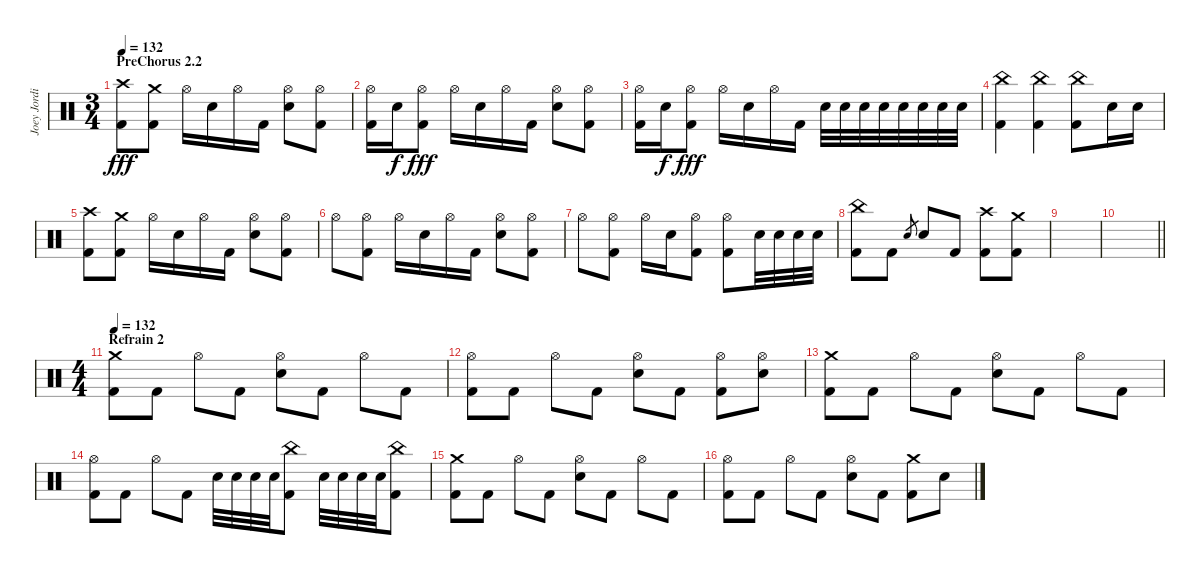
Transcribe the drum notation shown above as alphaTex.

\track ("Joey Jordison" "Joey Jordi") {instrument percussion}
\staff {score}
\articulation defaults
\ts (3 4)
\section ("" "PreChorus 2.2")
\tempo 132
\clef neutral
\ks c
("Crash high (hit)" "Kick (hit) 2").8{dy fff} ("Crash medium (hit)" "Kick (hit) 2").8 "Hi-Hat (open)".16 "Electric Snare (hit)".16 "Hi-Hat (open)".16 "Kick (hit) 2".16 ("Hi-Hat (open)" "Electric Snare (hit)").8 ("Hi-Hat (open)" "Kick (hit) 2").8 |
("Hi-Hat (open)" "Kick (hit) 2").16 "Electric Snare (hit)".16{dy f} ("Hi-Hat (open)" "Kick (hit) 2").8{dy fff} "Hi-Hat (open)".16 "Electric Snare (hit)".16 "Hi-Hat (open)".16 "Kick (hit) 2".16 ("Hi-Hat (open)" "Electric Snare (hit)").8 ("Hi-Hat (open)" "Kick (hit) 2").8 |
("Hi-Hat (open)" "Kick (hit) 2").16 "Electric Snare (hit)".16{dy f} ("Hi-Hat (open)" "Kick (hit) 2").8{dy fff} "Hi-Hat (open)".16 "Electric Snare (hit)".16 "Hi-Hat (open)".16 "Kick (hit) 2".16 "Electric Snare (hit)".32 "Electric Snare (hit)".32 "Electric Snare (hit)".32 "Electric Snare (hit)".32 "Electric Snare (hit)".32 "Electric Snare (hit)".32 "Electric Snare (hit)".32 "Electric Snare (hit)".32 |
("China (hit)" "Kick (hit) 2").4 ("China (hit)" "Kick (hit) 2").4 ("China (hit)" "Kick (hit) 2").8 "Electric Snare (hit)".16 "Electric Snare (hit)".16 |
("Crash high (hit)" "Kick (hit) 2").8 ("Crash medium (hit)" "Kick (hit) 2").8 "Hi-Hat (open)".16 "Electric Snare (hit)".16 "Hi-Hat (open)".16 "Kick (hit) 2".16 ("Hi-Hat (open)" "Electric Snare (hit)").8 ("Hi-Hat (open)" "Kick (hit) 2").8 |
"Hi-Hat (open)".8 ("Hi-Hat (open)" "Kick (hit) 2").8 "Hi-Hat (open)".16 "Electric Snare (hit)".16 "Hi-Hat (open)".16 "Kick (hit) 2".16 ("Hi-Hat (open)" "Electric Snare (hit)").8 ("Hi-Hat (open)" "Kick (hit) 2").8 |
"Hi-Hat (open)".8 ("Hi-Hat (open)" "Kick (hit) 2").8 "Hi-Hat (open)".16 "Electric Snare (hit)".16 ("Hi-Hat (open)" "Kick (hit) 2").8 ("Hi-Hat (open)" "Kick (hit) 2").8 "Electric Snare (hit)".32 "Electric Snare (hit)".32 "Electric Snare (hit)".32 "Electric Snare (hit)".32 |
("China (hit)" "Kick (hit) 2").8 "Kick (hit) 2".8 "Electric Snare (hit)".8{gr} "Electric Snare (hit)".8 "Kick (hit) 2".8 ("Crash high (hit)" "Kick (hit) 2").8 ("Crash medium (hit)" "Kick (hit) 2").8 |
|
\barLineRight lightlight
|
\ts (4 4)
\section ("" "Refrain 2")
\tempo 132
("Crash medium (hit)" "Kick (hit) 2").8 "Kick (hit) 2".8 "Hi-Hat (open)".8 "Kick (hit) 2".8 ("Hi-Hat (open)" "Electric Snare (hit)").8 "Kick (hit) 2".8 "Hi-Hat (open)".8 "Kick (hit) 2".8 |
("Hi-Hat (open)" "Kick (hit) 2").8 "Kick (hit) 2".8 "Hi-Hat (open)".8 "Kick (hit) 2".8 ("Hi-Hat (open)" "Electric Snare (hit)").8 "Kick (hit) 2".8 ("Hi-Hat (open)" "Kick (hit) 2").8 ("Hi-Hat (open)" "Electric Snare (hit)").8 |
("Crash medium (hit)" "Kick (hit) 2").8 "Kick (hit) 2".8 "Hi-Hat (open)".8 "Kick (hit) 2".8 ("Hi-Hat (open)" "Electric Snare (hit)").8 "Kick (hit) 2".8 "Hi-Hat (open)".8 "Kick (hit) 2".8 |
("Hi-Hat (open)" "Kick (hit) 2").8 "Kick (hit) 2".8 "Hi-Hat (open)".8 "Kick (hit) 2".8 "Electric Snare (hit)".32 "Electric Snare (hit)".32 "Electric Snare (hit)".32 "Electric Snare (hit)".32 ("China (hit)" "Kick (hit) 2").8 "Electric Snare (hit)".32 "Electric Snare (hit)".32 "Electric Snare (hit)".32 "Electric Snare (hit)".32 ("China (hit)" "Kick (hit) 2").8 |
("Crash medium (hit)" "Kick (hit) 2").8 "Kick (hit) 2".8 "Hi-Hat (open)".8 "Kick (hit) 2".8 ("Hi-Hat (open)" "Electric Snare (hit)").8 "Kick (hit) 2".8 "Hi-Hat (open)".8 "Kick (hit) 2".8 |
("Hi-Hat (open)" "Kick (hit) 2").8 "Kick (hit) 2".8 "Hi-Hat (open)".8 "Kick (hit) 2".8 ("Hi-Hat (open)" "Electric Snare (hit)").8 "Kick (hit) 2".8 ("Crash medium (hit)" "Kick (hit) 2").8 "Electric Snare (hit)".8
